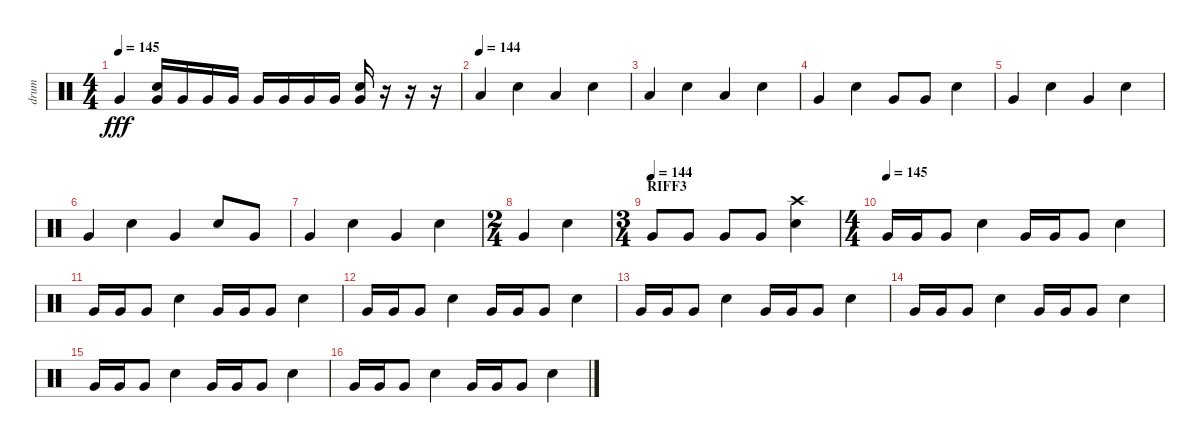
\track ("drum" "drum") {instrument percussion}
\staff {score}
\articulation defaults
\ts (4 4)
\tempo 145
\clef neutral
\ks c "Very Low Tom (hit)".4{dy fff}
("Very Low Tom (hit)" "Electric Snare (hit)").16 "Very Low Tom (hit)".16 "Very Low Tom (hit)".16 "Very Low Tom (hit)".16 "Very Low Tom (hit)".16 "Very Low Tom (hit)".16 "Very Low Tom (hit)".16 "Very Low Tom (hit)".16 ("Very Low Tom (hit)" "Electric Snare (hit)").16 r.16 r.16 r.16 |
\tempo (144)
"Low Floor Tom (hit)".4 "Electric Snare (hit)".4 "Low Floor Tom (hit)".4 "Electric Snare (hit)".4 |
"Low Floor Tom (hit)".4 "Electric Snare (hit)".4 "Low Floor Tom (hit)".4 "Electric Snare (hit)".4 |
"Very Low Tom (hit)".4 "Electric Snare (hit)".4 "Very Low Tom (hit)".8 "Very Low Tom (hit)".8 "Electric Snare (hit)".4 |
"Very Low Tom (hit)".4 "Electric Snare (hit)".4 "Very Low Tom (hit)".4 "Electric Snare (hit)".4 |
"Very Low Tom (hit)".4 "Electric Snare (hit)".4 "Very Low Tom (hit)".4 "Electric Snare (hit)".8 "Very Low Tom (hit)".8 |
"Very Low Tom (hit)".4 "Electric Snare (hit)".4 "Very Low Tom (hit)".4 "Electric Snare (hit)".4 |
\ts (2 4)
"Very Low Tom (hit)".4 "Electric Snare (hit)".4 |
\ts (3 4)
\section ("" "RIFF3")
\tempo (144)
"Very Low Tom (hit)".8 "Very Low Tom (hit)".8 "Very Low Tom (hit)".8 "Very Low Tom (hit)".8 ("Electric Snare (hit)" "Crash high (hit)").4 |
\ts (4 4)
\tempo (145)
"Very Low Tom (hit)".16 "Very Low Tom (hit)".16 "Very Low Tom (hit)".8 "Electric Snare (hit)".4 "Very Low Tom (hit)".16 "Very Low Tom (hit)".16 "Very Low Tom (hit)".8 "Electric Snare (hit)".4 |
"Very Low Tom (hit)".16 "Very Low Tom (hit)".16 "Very Low Tom (hit)".8 "Electric Snare (hit)".4 "Very Low Tom (hit)".16 "Very Low Tom (hit)".16 "Very Low Tom (hit)".8 "Electric Snare (hit)".4 |
"Very Low Tom (hit)".16 "Very Low Tom (hit)".16 "Very Low Tom (hit)".8 "Electric Snare (hit)".4 "Very Low Tom (hit)".16 "Very Low Tom (hit)".16 "Very Low Tom (hit)".8 "Electric Snare (hit)".4 |
"Very Low Tom (hit)".16 "Very Low Tom (hit)".16 "Very Low Tom (hit)".8 "Electric Snare (hit)".4 "Very Low Tom (hit)".16 "Very Low Tom (hit)".16 "Very Low Tom (hit)".8 "Electric Snare (hit)".4 |
"Very Low Tom (hit)".16 "Very Low Tom (hit)".16 "Very Low Tom (hit)".8 "Electric Snare (hit)".4 "Very Low Tom (hit)".16 "Very Low Tom (hit)".16 "Very Low Tom (hit)".8 "Electric Snare (hit)".4 |
"Very Low Tom (hit)".16 "Very Low Tom (hit)".16 "Very Low Tom (hit)".8 "Electric Snare (hit)".4 "Very Low Tom (hit)".16 "Very Low Tom (hit)".16 "Very Low Tom (hit)".8 "Electric Snare (hit)".4 |
"Very Low Tom (hit)".16 "Very Low Tom (hit)".16 "Very Low Tom (hit)".8 "Electric Snare (hit)".4 "Very Low Tom (hit)".16 "Very Low Tom (hit)".16 "Very Low Tom (hit)".8 "Electric Snare (hit)".4
